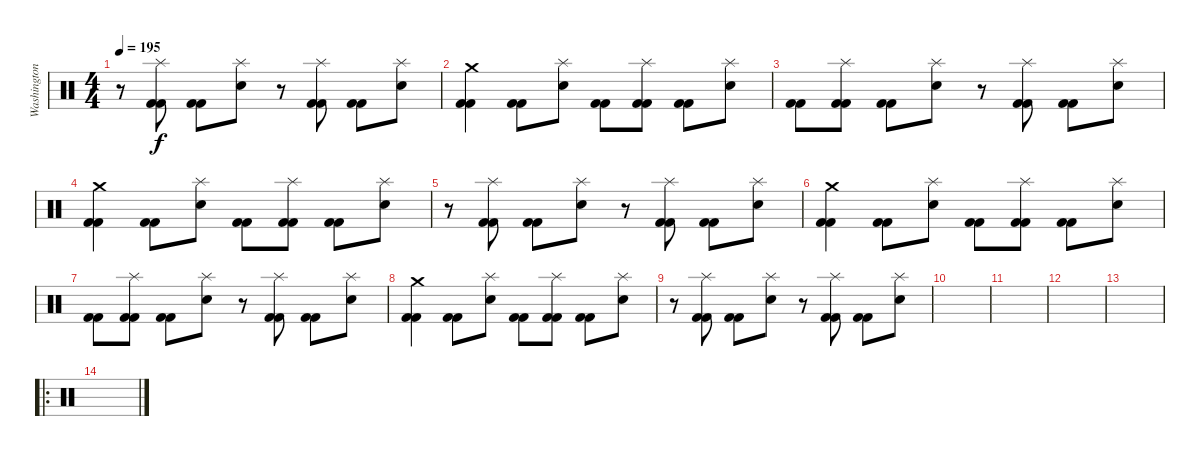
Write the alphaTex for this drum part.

\track ("Washington" "Washington") {solo instrument percussion}
\staff {score}
\articulation defaults
\ts (4 4)
\tempo 195
\clef neutral
\ks c
r.8{dy f} ("Splash (hit)" "Kick (hit) 2" "Kick (hit) 2").8 ("Kick (hit) 2" "Kick (hit) 2").8 ("Splash (hit)" "Electric Snare (hit)").8 r.8 ("Splash (hit)" "Kick (hit) 2" "Kick (hit) 2").8 ("Kick (hit) 2" "Kick (hit) 2").8 ("Splash (hit)" "Electric Snare (hit)").8 |
("Crash medium (hit)" "Kick (hit) 2" "Kick (hit) 2").4 ("Kick (hit) 2" "Kick (hit) 2").8 ("Splash (hit)" "Electric Snare (hit)").8 ("Kick (hit) 2" "Kick (hit) 2").8 ("Splash (hit)" "Kick (hit) 2" "Kick (hit) 2").8 ("Kick (hit) 2" "Kick (hit) 2").8 ("Splash (hit)" "Electric Snare (hit)").8 |
("Kick (hit) 2" "Kick (hit) 2").8 ("Splash (hit)" "Kick (hit) 2" "Kick (hit) 2").8 ("Kick (hit) 2" "Kick (hit) 2").8 ("Splash (hit)" "Electric Snare (hit)").8 r.8 ("Splash (hit)" "Kick (hit) 2" "Kick (hit) 2").8 ("Kick (hit) 2" "Kick (hit) 2").8 ("Splash (hit)" "Electric Snare (hit)").8 |
("Crash medium (hit)" "Kick (hit) 2" "Kick (hit) 2").4 ("Kick (hit) 2" "Kick (hit) 2").8 ("Splash (hit)" "Electric Snare (hit)").8 ("Kick (hit) 2" "Kick (hit) 2").8 ("Splash (hit)" "Kick (hit) 2" "Kick (hit) 2").8 ("Kick (hit) 2" "Kick (hit) 2").8 ("Splash (hit)" "Electric Snare (hit)").8 |
r.8 ("Splash (hit)" "Kick (hit) 2" "Kick (hit) 2").8 ("Kick (hit) 2" "Kick (hit) 2").8 ("Splash (hit)" "Electric Snare (hit)").8 r.8 ("Splash (hit)" "Kick (hit) 2" "Kick (hit) 2").8 ("Kick (hit) 2" "Kick (hit) 2").8 ("Splash (hit)" "Electric Snare (hit)").8 |
("Crash medium (hit)" "Kick (hit) 2" "Kick (hit) 2").4 ("Kick (hit) 2" "Kick (hit) 2").8 ("Splash (hit)" "Electric Snare (hit)").8 ("Kick (hit) 2" "Kick (hit) 2").8 ("Splash (hit)" "Kick (hit) 2" "Kick (hit) 2").8 ("Kick (hit) 2" "Kick (hit) 2").8 ("Splash (hit)" "Electric Snare (hit)").8 |
("Kick (hit) 2" "Kick (hit) 2").8 ("Splash (hit)" "Kick (hit) 2" "Kick (hit) 2").8 ("Kick (hit) 2" "Kick (hit) 2").8 ("Splash (hit)" "Electric Snare (hit)").8 r.8 ("Splash (hit)" "Kick (hit) 2" "Kick (hit) 2").8 ("Kick (hit) 2" "Kick (hit) 2").8 ("Splash (hit)" "Electric Snare (hit)").8 |
("Crash medium (hit)" "Kick (hit) 2" "Kick (hit) 2").4 ("Kick (hit) 2" "Kick (hit) 2").8 ("Splash (hit)" "Electric Snare (hit)").8 ("Kick (hit) 2" "Kick (hit) 2").8 ("Splash (hit)" "Kick (hit) 2" "Kick (hit) 2").8 ("Kick (hit) 2" "Kick (hit) 2").8 ("Splash (hit)" "Electric Snare (hit)").8 |
r.8 ("Splash (hit)" "Kick (hit) 2" "Kick (hit) 2").8 ("Kick (hit) 2" "Kick (hit) 2").8 ("Splash (hit)" "Electric Snare (hit)").8 r.8 ("Splash (hit)" "Kick (hit) 2" "Kick (hit) 2").8 ("Kick (hit) 2" "Kick (hit) 2").8 ("Splash (hit)" "Electric Snare (hit)").8 |
|
|
|
|
\ro
